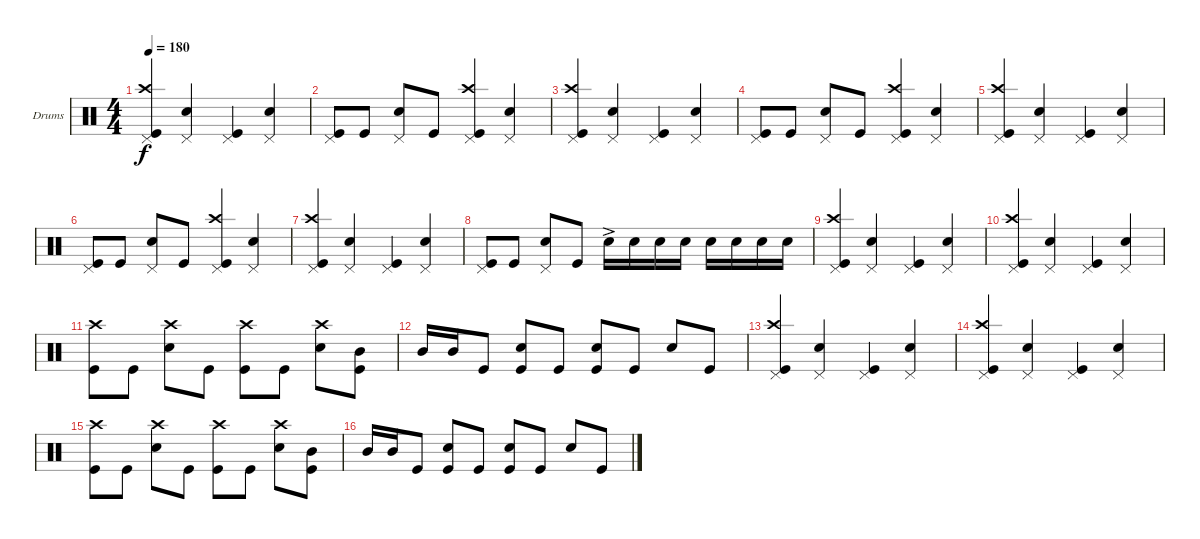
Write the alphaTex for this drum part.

\defaultSystemsLayout 4
\bracketExtendMode groupsimilarinstruments
\firstSystemTrackNameOrientation horizontal
\otherSystemsTrackNameOrientation horizontal
\track ("Drumkit" "Drums") {multiBarRest instrument percussion}
\staff {score}
\articulation defaults
\ts (4 4)
\tempo 180
\clef neutral
\scale
0.333333
\ks c
("Pedal Hi-Hat (hit)" "Crash high (hit)" "Kick (hit)").4{dy f} ("Pedal Hi-Hat (hit)" "Snare (hit) 2").4 ("Pedal Hi-Hat (hit)" "Kick (hit)").4 ("Pedal Hi-Hat (hit)" "Snare (hit) 2").4 |
\scale
0.333333 ("Pedal Hi-Hat (hit)" "Kick (hit)").8 "Kick (hit)".8 ("Pedal Hi-Hat (hit)" "Snare (hit) 2").8 "Kick (hit)".8 ("Pedal Hi-Hat (hit)" "Crash high (hit)" "Kick (hit)").4 ("Pedal Hi-Hat (hit)" "Snare (hit) 2").4 |
\scale
0.333333 ("Pedal Hi-Hat (hit)" "Crash high (hit)" "Kick (hit)").4 ("Pedal Hi-Hat (hit)" "Snare (hit) 2").4 ("Pedal Hi-Hat (hit)" "Kick (hit)").4 ("Pedal Hi-Hat (hit)" "Snare (hit) 2").4 |
\scale
0.333333 ("Pedal Hi-Hat (hit)" "Kick (hit)").8 "Kick (hit)".8 ("Pedal Hi-Hat (hit)" "Snare (hit) 2").8 "Kick (hit)".8 ("Pedal Hi-Hat (hit)" "Crash high (hit)" "Kick (hit)").4 ("Pedal Hi-Hat (hit)" "Snare (hit) 2").4 |
\scale
0.333333 ("Pedal Hi-Hat (hit)" "Crash high (hit)" "Kick (hit)").4 ("Pedal Hi-Hat (hit)" "Snare (hit) 2").4 ("Pedal Hi-Hat (hit)" "Kick (hit)").4 ("Pedal Hi-Hat (hit)" "Snare (hit) 2").4 |
\scale
0.333333 ("Pedal Hi-Hat (hit)" "Kick (hit)").8 "Kick (hit)".8 ("Pedal Hi-Hat (hit)" "Snare (hit) 2").8 "Kick (hit)".8 ("Pedal Hi-Hat (hit)" "Crash high (hit)" "Kick (hit)").4 ("Pedal Hi-Hat (hit)" "Snare (hit) 2").4 |
\scale
0.333333 ("Pedal Hi-Hat (hit)" "Crash high (hit)" "Kick (hit)").4 ("Pedal Hi-Hat (hit)" "Snare (hit) 2").4 ("Pedal Hi-Hat (hit)" "Kick (hit)").4 ("Pedal Hi-Hat (hit)" "Snare (hit) 2").4 |
\scale
0.333333 ("Pedal Hi-Hat (hit)" "Kick (hit)").8 "Kick (hit)".8 ("Pedal Hi-Hat (hit)" "Snare (hit) 2").8 "Kick (hit)".8 "Snare (hit) 2"{ac}.16 "Snare (hit) 2".16 "Snare (hit) 2".16 "Snare (hit) 2".16 "Snare (hit) 2".16 "Snare (hit) 2".16 "Snare (hit) 2".16 "Snare (hit) 2".16 |
\scale
0.333333 ("Pedal Hi-Hat (hit)" "Crash high (hit)" "Kick (hit)").4 ("Pedal Hi-Hat (hit)" "Snare (hit) 2").4 ("Pedal Hi-Hat (hit)" "Kick (hit)").4 ("Pedal Hi-Hat (hit)" "Snare (hit) 2").4 |
\scale
0.333333 ("Pedal Hi-Hat (hit)" "Crash high (hit)" "Kick (hit)").4 ("Pedal Hi-Hat (hit)" "Snare (hit) 2").4 ("Pedal Hi-Hat (hit)" "Kick (hit)").4 ("Pedal Hi-Hat (hit)" "Snare (hit) 2").4 |
\scale
0.333333 ("Crash high (hit)" "Kick (hit)").8 "Kick (hit)".8 ("Crash high (hit)" "Snare (hit) 2").8 "Kick (hit)".8 ("Crash high (hit)" "Kick (hit)").8 "Kick (hit)".8 ("Crash high (hit)" "Snare (hit) 2").8 ("Mid Tom (hit)" "Kick (hit)").8 |
\scale
0.333333 "Mid Tom (hit)".16 "Mid Tom (hit)".16 "Kick (hit)".8 ("Snare (hit) 2" "Kick (hit)").8 "Kick (hit)".8 ("Snare (hit) 2" "Kick (hit)").8 "Kick (hit)".8 "Snare (hit) 2".8 "Kick (hit)".8 |
\scale
0.333333 ("Pedal Hi-Hat (hit)" "Crash high (hit)" "Kick (hit)").4 ("Pedal Hi-Hat (hit)" "Snare (hit) 2").4 ("Pedal Hi-Hat (hit)" "Kick (hit)").4 ("Pedal Hi-Hat (hit)" "Snare (hit) 2").4 |
\scale
0.333333 ("Pedal Hi-Hat (hit)" "Crash high (hit)" "Kick (hit)").4 ("Pedal Hi-Hat (hit)" "Snare (hit) 2").4 ("Pedal Hi-Hat (hit)" "Kick (hit)").4 ("Pedal Hi-Hat (hit)" "Snare (hit) 2").4 |
\scale
0.333333 ("Crash high (hit)" "Kick (hit)").8 "Kick (hit)".8 ("Crash high (hit)" "Snare (hit) 2").8 "Kick (hit)".8 ("Crash high (hit)" "Kick (hit)").8 "Kick (hit)".8 ("Crash high (hit)" "Snare (hit) 2").8 ("Mid Tom (hit)" "Kick (hit)").8 |
\scale
0.333333 "Mid Tom (hit)".16 "Mid Tom (hit)".16 "Kick (hit)".8 ("Snare (hit) 2" "Kick (hit)").8 "Kick (hit)".8 ("Snare (hit) 2" "Kick (hit)").8 "Kick (hit)".8 "Snare (hit) 2".8 "Kick (hit)".8
